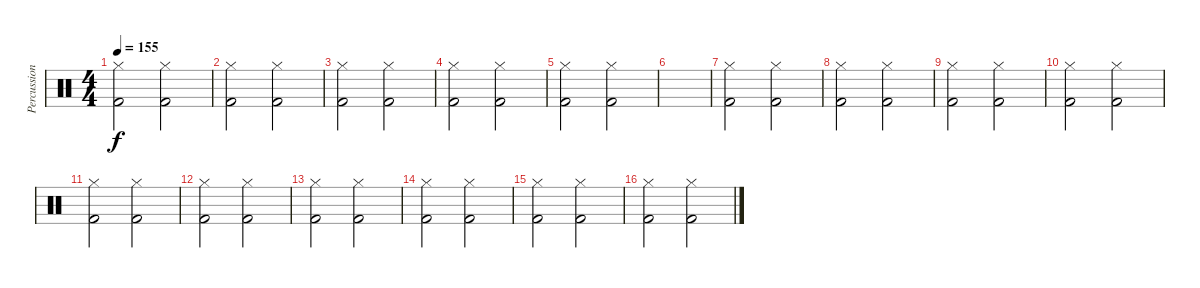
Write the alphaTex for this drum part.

\track ("Percussion" "Percussion") {instrument percussion}
\staff {score}
\articulation defaults
\ts (4 4)
\tempo 155
\clef neutral
\ks c
("Kick (hit) 2" "Hi-Hat (closed)").2{dy f} ("Kick (hit) 2" "Hi-Hat (closed)").2 |
("Kick (hit) 2" "Hi-Hat (closed)").2 ("Kick (hit) 2" "Hi-Hat (closed)").2 |
("Kick (hit) 2" "Hi-Hat (closed)").2 ("Kick (hit) 2" "Hi-Hat (closed)").2 |
("Kick (hit) 2" "Hi-Hat (closed)").2 ("Kick (hit) 2" "Hi-Hat (closed)").2 |
("Kick (hit) 2" "Hi-Hat (closed)").2 ("Kick (hit) 2" "Hi-Hat (closed)").2 |
|
("Kick (hit) 2" "Hi-Hat (closed)").2 ("Kick (hit) 2" "Hi-Hat (closed)").2 |
("Kick (hit) 2" "Hi-Hat (closed)").2 ("Kick (hit) 2" "Hi-Hat (closed)").2 |
("Kick (hit) 2" "Hi-Hat (closed)").2 ("Kick (hit) 2" "Hi-Hat (closed)").2 |
("Kick (hit) 2" "Hi-Hat (closed)").2 ("Kick (hit) 2" "Hi-Hat (closed)").2 |
("Kick (hit) 2" "Hi-Hat (closed)").2 ("Kick (hit) 2" "Hi-Hat (closed)").2 |
("Kick (hit) 2" "Hi-Hat (closed)").2 ("Kick (hit) 2" "Hi-Hat (closed)").2 |
("Kick (hit) 2" "Hi-Hat (closed)").2 ("Kick (hit) 2" "Hi-Hat (closed)").2 |
("Kick (hit) 2" "Hi-Hat (closed)").2 ("Kick (hit) 2" "Hi-Hat (closed)").2 |
("Kick (hit) 2" "Hi-Hat (closed)").2 ("Kick (hit) 2" "Hi-Hat (closed)").2 |
("Kick (hit) 2" "Hi-Hat (closed)").2 ("Kick (hit) 2" "Hi-Hat (closed)").2
